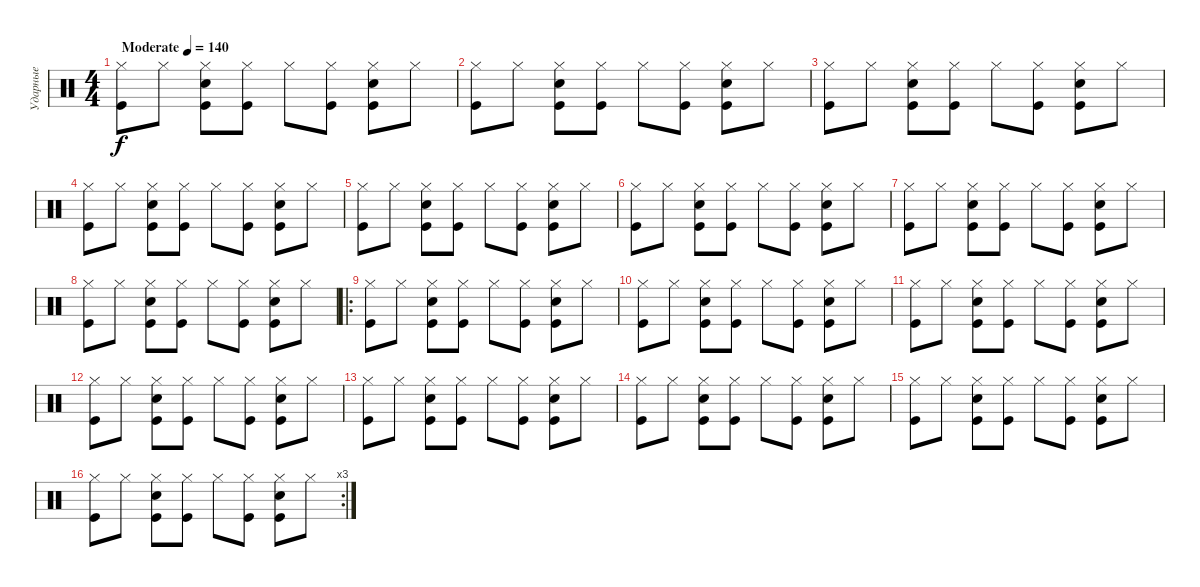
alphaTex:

\track ("Ударные" "Ударные") {instrument percussion}
\staff {score}
\articulation defaults
\ts (4 4)
\tempo (140 "Moderate")
\clef neutral
\ks c
("Hi-Hat (closed)" "Kick (hit)").8{dy f} "Hi-Hat (closed)".8 ("Hi-Hat (closed)" "Snare (hit) 2" "Kick (hit)").8 ("Hi-Hat (closed)" "Kick (hit)").8 "Hi-Hat (closed)".8 ("Hi-Hat (closed)" "Kick (hit)").8 ("Hi-Hat (closed)" "Snare (hit) 2" "Kick (hit)").8 "Hi-Hat (closed)".8 |
("Hi-Hat (closed)" "Kick (hit)").8 "Hi-Hat (closed)".8 ("Hi-Hat (closed)" "Snare (hit) 2" "Kick (hit)").8 ("Hi-Hat (closed)" "Kick (hit)").8 "Hi-Hat (closed)".8 ("Hi-Hat (closed)" "Kick (hit)").8 ("Hi-Hat (closed)" "Snare (hit) 2" "Kick (hit)").8 "Hi-Hat (closed)".8 |
("Hi-Hat (closed)" "Kick (hit)").8 "Hi-Hat (closed)".8 ("Hi-Hat (closed)" "Snare (hit) 2" "Kick (hit)").8 ("Hi-Hat (closed)" "Kick (hit)").8 "Hi-Hat (closed)".8 ("Hi-Hat (closed)" "Kick (hit)").8 ("Hi-Hat (closed)" "Snare (hit) 2" "Kick (hit)").8 "Hi-Hat (closed)".8 |
("Hi-Hat (closed)" "Kick (hit)").8 "Hi-Hat (closed)".8 ("Hi-Hat (closed)" "Snare (hit) 2" "Kick (hit)").8 ("Hi-Hat (closed)" "Kick (hit)").8 "Hi-Hat (closed)".8 ("Hi-Hat (closed)" "Kick (hit)").8 ("Hi-Hat (closed)" "Snare (hit) 2" "Kick (hit)").8 "Hi-Hat (closed)".8 |
("Hi-Hat (closed)" "Kick (hit)").8 "Hi-Hat (closed)".8 ("Hi-Hat (closed)" "Snare (hit) 2" "Kick (hit)").8 ("Hi-Hat (closed)" "Kick (hit)").8 "Hi-Hat (closed)".8 ("Hi-Hat (closed)" "Kick (hit)").8 ("Hi-Hat (closed)" "Snare (hit) 2" "Kick (hit)").8 "Hi-Hat (closed)".8 |
("Hi-Hat (closed)" "Kick (hit)").8 "Hi-Hat (closed)".8 ("Hi-Hat (closed)" "Snare (hit) 2" "Kick (hit)").8 ("Hi-Hat (closed)" "Kick (hit)").8 "Hi-Hat (closed)".8 ("Hi-Hat (closed)" "Kick (hit)").8 ("Hi-Hat (closed)" "Snare (hit) 2" "Kick (hit)").8 "Hi-Hat (closed)".8 |
("Hi-Hat (closed)" "Kick (hit)").8 "Hi-Hat (closed)".8 ("Hi-Hat (closed)" "Snare (hit) 2" "Kick (hit)").8 ("Hi-Hat (closed)" "Kick (hit)").8 "Hi-Hat (closed)".8 ("Hi-Hat (closed)" "Kick (hit)").8 ("Hi-Hat (closed)" "Snare (hit) 2" "Kick (hit)").8 "Hi-Hat (closed)".8 |
("Hi-Hat (closed)" "Kick (hit)").8 "Hi-Hat (closed)".8 ("Hi-Hat (closed)" "Snare (hit) 2" "Kick (hit)").8 ("Hi-Hat (closed)" "Kick (hit)").8 "Hi-Hat (closed)".8 ("Hi-Hat (closed)" "Kick (hit)").8 ("Hi-Hat (closed)" "Snare (hit) 2" "Kick (hit)").8 "Hi-Hat (closed)".8 |
\ro
("Hi-Hat (closed)" "Kick (hit)").8 "Hi-Hat (closed)".8 ("Hi-Hat (closed)" "Snare (hit) 2" "Kick (hit)").8 ("Hi-Hat (closed)" "Kick (hit)").8 "Hi-Hat (closed)".8 ("Hi-Hat (closed)" "Kick (hit)").8 ("Hi-Hat (closed)" "Snare (hit) 2" "Kick (hit)").8 "Hi-Hat (closed)".8 |
("Hi-Hat (closed)" "Kick (hit)").8 "Hi-Hat (closed)".8 ("Hi-Hat (closed)" "Snare (hit) 2" "Kick (hit)").8 ("Hi-Hat (closed)" "Kick (hit)").8 "Hi-Hat (closed)".8 ("Hi-Hat (closed)" "Kick (hit)").8 ("Hi-Hat (closed)" "Snare (hit) 2" "Kick (hit)").8 "Hi-Hat (closed)".8 |
("Hi-Hat (closed)" "Kick (hit)").8 "Hi-Hat (closed)".8 ("Hi-Hat (closed)" "Snare (hit) 2" "Kick (hit)").8 ("Hi-Hat (closed)" "Kick (hit)").8 "Hi-Hat (closed)".8 ("Hi-Hat (closed)" "Kick (hit)").8 ("Hi-Hat (closed)" "Snare (hit) 2" "Kick (hit)").8 "Hi-Hat (closed)".8 |
("Hi-Hat (closed)" "Kick (hit)").8 "Hi-Hat (closed)".8 ("Hi-Hat (closed)" "Snare (hit) 2" "Kick (hit)").8 ("Hi-Hat (closed)" "Kick (hit)").8 "Hi-Hat (closed)".8 ("Hi-Hat (closed)" "Kick (hit)").8 ("Hi-Hat (closed)" "Snare (hit) 2" "Kick (hit)").8 "Hi-Hat (closed)".8 |
("Hi-Hat (closed)" "Kick (hit)").8 "Hi-Hat (closed)".8 ("Hi-Hat (closed)" "Snare (hit) 2" "Kick (hit)").8 ("Hi-Hat (closed)" "Kick (hit)").8 "Hi-Hat (closed)".8 ("Hi-Hat (closed)" "Kick (hit)").8 ("Hi-Hat (closed)" "Snare (hit) 2" "Kick (hit)").8 "Hi-Hat (closed)".8 |
("Hi-Hat (closed)" "Kick (hit)").8 "Hi-Hat (closed)".8 ("Hi-Hat (closed)" "Snare (hit) 2" "Kick (hit)").8 ("Hi-Hat (closed)" "Kick (hit)").8 "Hi-Hat (closed)".8 ("Hi-Hat (closed)" "Kick (hit)").8 ("Hi-Hat (closed)" "Snare (hit) 2" "Kick (hit)").8 "Hi-Hat (closed)".8 |
("Hi-Hat (closed)" "Kick (hit)").8 "Hi-Hat (closed)".8 ("Hi-Hat (closed)" "Snare (hit) 2" "Kick (hit)").8 ("Hi-Hat (closed)" "Kick (hit)").8 "Hi-Hat (closed)".8 ("Hi-Hat (closed)" "Kick (hit)").8 ("Hi-Hat (closed)" "Snare (hit) 2" "Kick (hit)").8 "Hi-Hat (closed)".8 |
\rc 3
("Hi-Hat (closed)" "Kick (hit)").8 "Hi-Hat (closed)".8 ("Hi-Hat (closed)" "Snare (hit) 2" "Kick (hit)").8 ("Hi-Hat (closed)" "Kick (hit)").8 "Hi-Hat (closed)".8 ("Hi-Hat (closed)" "Kick (hit)").8 ("Hi-Hat (closed)" "Snare (hit) 2" "Kick (hit)").8 "Hi-Hat (closed)".8
